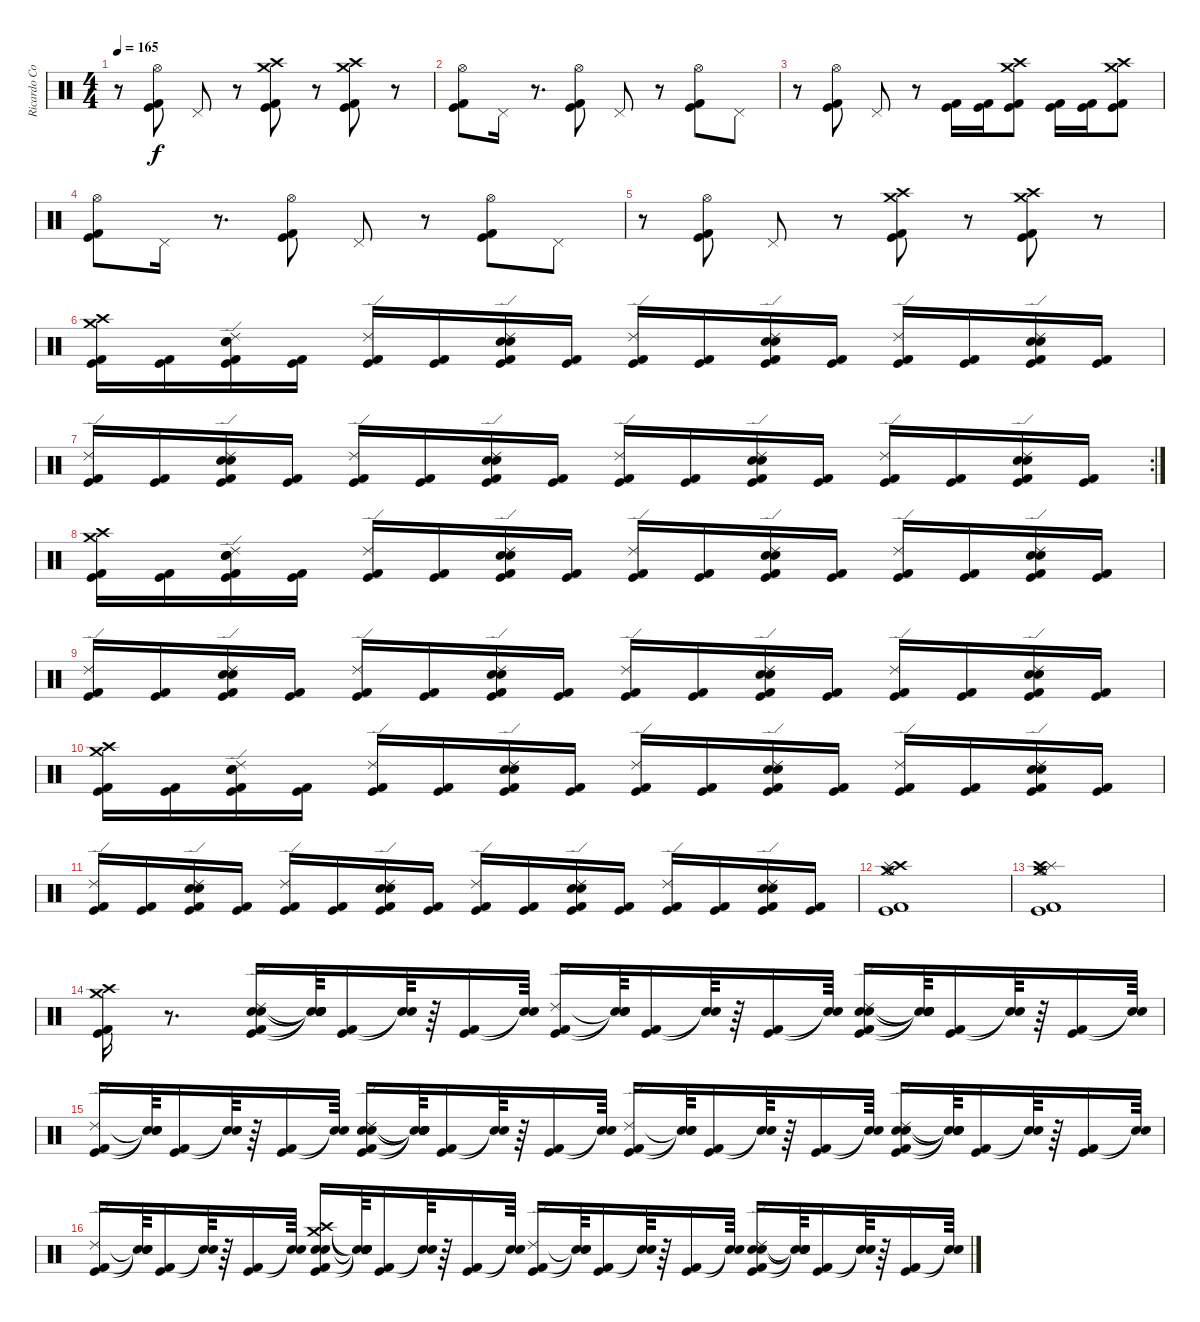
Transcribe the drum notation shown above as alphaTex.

\track ("Ricardo Confessori" "Ricardo Co") {instrument percussion}
\staff {score}
\articulation defaults
\ts (4 4)
\tempo 165
\clef neutral
\ks c
r.8{dy f} ("Hi-Hat (open)" "Kick (hit)" "Kick (hit) 2").8 "Pedal Hi-Hat (hit)".8 r.8 ("Crash high (hit)" "Crash medium (hit)" "Kick (hit)" "Kick (hit) 2").8 r.8 ("Crash high (hit)" "Crash medium (hit)" "Kick (hit) 2" "Kick (hit)").8 r.8 |
("Kick (hit) 2" "Kick (hit)" "Hi-Hat (open)").8 "Pedal Hi-Hat (hit)".16 r.8{d} ("Kick (hit) 2" "Kick (hit)" "Hi-Hat (open)").8 "Pedal Hi-Hat (hit)".8 r.8 ("Kick (hit)" "Hi-Hat (open)" "Kick (hit) 2").8 "Pedal Hi-Hat (hit)".8 |
r.8 ("Hi-Hat (open)" "Kick (hit)" "Kick (hit) 2").8 "Pedal Hi-Hat (hit)".8 r.8 ("Kick (hit) 2" "Kick (hit)").16 ("Kick (hit) 2" "Kick (hit)").16 ("Crash medium (hit)" "Crash high (hit)" "Kick (hit) 2" "Kick (hit)").8 ("Kick (hit) 2" "Kick (hit)").16 ("Kick (hit) 2" "Kick (hit)").16 ("Crash medium (hit)" "Crash high (hit)" "Kick (hit)" "Kick (hit) 2").8 |
("Kick (hit) 2" "Kick (hit)" "Hi-Hat (open)").8 "Pedal Hi-Hat (hit)".16 r.8{d} ("Kick (hit) 2" "Kick (hit)" "Hi-Hat (open)").8 "Pedal Hi-Hat (hit)".8 r.8 ("Kick (hit)" "Hi-Hat (open)" "Kick (hit) 2").8 "Pedal Hi-Hat (hit)".8 |
r.8 ("Hi-Hat (open)" "Kick (hit)" "Kick (hit) 2").8 "Pedal Hi-Hat (hit)".8 r.8 ("Crash high (hit)" "Crash medium (hit)" "Kick (hit)" "Kick (hit) 2").8 r.8 ("Crash high (hit)" "Crash medium (hit)" "Kick (hit) 2" "Kick (hit)").8 r.8 |
("Crash high (hit)" "Crash medium (hit)" "Kick (hit) 2" "Kick (hit)").16 ("Kick (hit) 2" "Kick (hit)").16 ("Ride (edge) 2" "Electric Snare (hit)" "Snare (hit) 2" "Kick (hit) 2" "Kick (hit)").16 ("Kick (hit) 2" "Kick (hit)").16 ("Ride (edge) 2" "Kick (hit) 2" "Kick (hit)").16 ("Kick (hit) 2" "Kick (hit)").16 ("Ride (edge) 2" "Electric Snare (hit)" "Snare (hit) 2" "Kick (hit) 2" "Kick (hit)").16 ("Kick (hit) 2" "Kick (hit)").16 ("Ride (edge) 2" "Kick (hit) 2" "Kick (hit)").16 ("Kick (hit) 2" "Kick (hit)").16 ("Ride (edge) 2" "Electric Snare (hit)" "Snare (hit) 2" "Kick (hit) 2" "Kick (hit)").16 ("Kick (hit) 2" "Kick (hit)").16 ("Ride (edge) 2" "Kick (hit) 2" "Kick (hit)").16 ("Kick (hit) 2" "Kick (hit)").16 ("Ride (edge) 2" "Electric Snare (hit)" "Snare (hit) 2" "Kick (hit) 2" "Kick (hit)").16 ("Kick (hit) 2" "Kick (hit)").16 |
\rc 2
("Ride (edge) 2" "Kick (hit) 2" "Kick (hit)").16 ("Kick (hit) 2" "Kick (hit)").16 ("Ride (edge) 2" "Electric Snare (hit)" "Snare (hit) 2" "Kick (hit) 2" "Kick (hit)").16 ("Kick (hit) 2" "Kick (hit)").16 ("Ride (edge) 2" "Kick (hit) 2" "Kick (hit)").16 ("Kick (hit) 2" "Kick (hit)").16 ("Ride (edge) 2" "Electric Snare (hit)" "Snare (hit) 2" "Kick (hit) 2" "Kick (hit)").16 ("Kick (hit) 2" "Kick (hit)").16 ("Ride (edge) 2" "Kick (hit) 2" "Kick (hit)").16 ("Kick (hit) 2" "Kick (hit)").16 ("Ride (edge) 2" "Electric Snare (hit)" "Snare (hit) 2" "Kick (hit) 2" "Kick (hit)").16 ("Kick (hit) 2" "Kick (hit)").16 ("Ride (edge) 2" "Kick (hit) 2" "Kick (hit)").16 ("Kick (hit) 2" "Kick (hit)").16 ("Ride (edge) 2" "Electric Snare (hit)" "Snare (hit) 2" "Kick (hit) 2" "Kick (hit)").16 ("Kick (hit) 2" "Kick (hit)").16 |
("Crash high (hit)" "Crash medium (hit)" "Kick (hit) 2" "Kick (hit)").16 ("Kick (hit) 2" "Kick (hit)").16 ("Ride (edge) 2" "Electric Snare (hit)" "Snare (hit) 2" "Kick (hit) 2" "Kick (hit)").16 ("Kick (hit) 2" "Kick (hit)").16 ("Ride (edge) 2" "Kick (hit) 2" "Kick (hit)").16 ("Kick (hit) 2" "Kick (hit)").16 ("Ride (edge) 2" "Electric Snare (hit)" "Snare (hit) 2" "Kick (hit) 2" "Kick (hit)").16 ("Kick (hit) 2" "Kick (hit)").16 ("Ride (edge) 2" "Kick (hit) 2" "Kick (hit)").16 ("Kick (hit) 2" "Kick (hit)").16 ("Ride (edge) 2" "Electric Snare (hit)" "Snare (hit) 2" "Kick (hit) 2" "Kick (hit)").16 ("Kick (hit) 2" "Kick (hit)").16 ("Ride (edge) 2" "Kick (hit) 2" "Kick (hit)").16 ("Kick (hit) 2" "Kick (hit)").16 ("Ride (edge) 2" "Electric Snare (hit)" "Snare (hit) 2" "Kick (hit) 2" "Kick (hit)").16 ("Kick (hit) 2" "Kick (hit)").16 |
("Ride (edge) 2" "Kick (hit) 2" "Kick (hit)").16 ("Kick (hit) 2" "Kick (hit)").16 ("Ride (edge) 2" "Electric Snare (hit)" "Snare (hit) 2" "Kick (hit) 2" "Kick (hit)").16 ("Kick (hit) 2" "Kick (hit)").16 ("Ride (edge) 2" "Kick (hit) 2" "Kick (hit)").16 ("Kick (hit) 2" "Kick (hit)").16 ("Ride (edge) 2" "Electric Snare (hit)" "Snare (hit) 2" "Kick (hit) 2" "Kick (hit)").16 ("Kick (hit) 2" "Kick (hit)").16 ("Ride (edge) 2" "Kick (hit) 2" "Kick (hit)").16 ("Kick (hit) 2" "Kick (hit)").16 ("Ride (edge) 2" "Electric Snare (hit)" "Snare (hit) 2" "Kick (hit) 2" "Kick (hit)").16 ("Kick (hit) 2" "Kick (hit)").16 ("Ride (edge) 2" "Kick (hit) 2" "Kick (hit)").16 ("Kick (hit) 2" "Kick (hit)").16 ("Ride (edge) 2" "Electric Snare (hit)" "Snare (hit) 2" "Kick (hit) 2" "Kick (hit)").16 ("Kick (hit) 2" "Kick (hit)").16 |
("Crash high (hit)" "Crash medium (hit)" "Kick (hit) 2" "Kick (hit)").16 ("Kick (hit) 2" "Kick (hit)").16 ("Ride (edge) 2" "Electric Snare (hit)" "Snare (hit) 2" "Kick (hit) 2" "Kick (hit)").16 ("Kick (hit) 2" "Kick (hit)").16 ("Ride (edge) 2" "Kick (hit) 2" "Kick (hit)").16 ("Kick (hit) 2" "Kick (hit)").16 ("Ride (edge) 2" "Electric Snare (hit)" "Snare (hit) 2" "Kick (hit) 2" "Kick (hit)").16 ("Kick (hit) 2" "Kick (hit)").16 ("Ride (edge) 2" "Kick (hit) 2" "Kick (hit)").16 ("Kick (hit) 2" "Kick (hit)").16 ("Ride (edge) 2" "Electric Snare (hit)" "Snare (hit) 2" "Kick (hit) 2" "Kick (hit)").16 ("Kick (hit) 2" "Kick (hit)").16 ("Ride (edge) 2" "Kick (hit) 2" "Kick (hit)").16 ("Kick (hit) 2" "Kick (hit)").16 ("Ride (edge) 2" "Electric Snare (hit)" "Snare (hit) 2" "Kick (hit) 2" "Kick (hit)").16 ("Kick (hit) 2" "Kick (hit)").16 |
("Ride (edge) 2" "Kick (hit) 2" "Kick (hit)").16 ("Kick (hit) 2" "Kick (hit)").16 ("Ride (edge) 2" "Electric Snare (hit)" "Snare (hit) 2" "Kick (hit) 2" "Kick (hit)").16 ("Kick (hit) 2" "Kick (hit)").16 ("Ride (edge) 2" "Kick (hit) 2" "Kick (hit)").16 ("Kick (hit) 2" "Kick (hit)").16 ("Ride (edge) 2" "Electric Snare (hit)" "Snare (hit) 2" "Kick (hit) 2" "Kick (hit)").16 ("Kick (hit) 2" "Kick (hit)").16 ("Ride (edge) 2" "Kick (hit) 2" "Kick (hit)").16 ("Kick (hit) 2" "Kick (hit)").16 ("Ride (edge) 2" "Electric Snare (hit)" "Snare (hit) 2" "Kick (hit) 2" "Kick (hit)").16 ("Kick (hit) 2" "Kick (hit)").16 ("Ride (edge) 2" "Kick (hit) 2" "Kick (hit)").16 ("Kick (hit) 2" "Kick (hit)").16 ("Ride (edge) 2" "Electric Snare (hit)" "Snare (hit) 2" "Kick (hit) 2" "Kick (hit)").16 ("Kick (hit) 2" "Kick (hit)").16 |
("Hi-Hat (open)" "Crash high (hit)" "Splash (hit)" "Crash medium (hit)" "Kick (hit) 2" "Kick (hit)").1 |
("Kick (hit)" "Kick (hit) 2" "Crash medium (hit)" "Splash (hit)" "Hi-Hat (open)" "Crash high (hit)").1 |
("Crash high (hit)" "Crash medium (hit)" "Kick (hit) 2" "Kick (hit)").16 r.8{d} ("Ride (edge) 2" "Electric Snare (hit)" "Snare (hit) 2" "Kick (hit) 2" "Kick (hit)").16 ("Snare (hit)"{t} "Snare (hit)"{t} "Snare (hit)"{t} "Snare (hit)"{t} "Snare (hit)"{t}).64 ("Kick (hit) 2" "Kick (hit)").16 ("Snare (hit)"{t} "Snare (hit)"{t}).64 r.64 ("Kick (hit) 2" "Kick (hit)").16 ("Snare (hit)"{t} "Snare (hit)"{t}).64 ("Ride (edge) 2" "Kick (hit) 2" "Kick (hit)").16 ("Snare (hit)"{t} "Snare (hit)"{t} "Snare (hit)"{t}).64 ("Kick (hit) 2" "Kick (hit)").16 ("Snare (hit)"{t} "Snare (hit)"{t}).64 r.64 ("Kick (hit) 2" "Kick (hit)").16 ("Snare (hit)"{t} "Snare (hit)"{t}).64 ("Ride (edge) 2" "Electric Snare (hit)" "Snare (hit) 2" "Kick (hit) 2" "Kick (hit)").16 ("Snare (hit)"{t} "Snare (hit)"{t} "Snare (hit)"{t} "Snare (hit)"{t} "Snare (hit)"{t}).64 ("Kick (hit) 2" "Kick (hit)").16 ("Snare (hit)"{t} "Snare (hit)"{t}).64 r.64 ("Kick (hit) 2" "Kick (hit)").16 ("Snare (hit)"{t} "Snare (hit)"{t}).64 |
("Ride (edge) 2" "Kick (hit) 2" "Kick (hit)").16 ("Snare (hit)"{t} "Snare (hit)"{t} "Snare (hit)"{t}).64 ("Kick (hit) 2" "Kick (hit)").16 ("Snare (hit)"{t} "Snare (hit)"{t}).64 r.64 ("Kick (hit) 2" "Kick (hit)").16 ("Snare (hit)"{t} "Snare (hit)"{t}).64 ("Ride (edge) 2" "Electric Snare (hit)" "Snare (hit) 2" "Kick (hit) 2" "Kick (hit)").16 ("Snare (hit)"{t} "Snare (hit)"{t} "Snare (hit)"{t} "Snare (hit)"{t} "Snare (hit)"{t}).64 ("Kick (hit) 2" "Kick (hit)").16 ("Snare (hit)"{t} "Snare (hit)"{t}).64 r.64 ("Kick (hit) 2" "Kick (hit)").16 ("Snare (hit)"{t} "Snare (hit)"{t}).64 ("Ride (edge) 2" "Kick (hit) 2" "Kick (hit)").16 ("Snare (hit)"{t} "Snare (hit)"{t} "Snare (hit)"{t}).64 ("Kick (hit) 2" "Kick (hit)").16 ("Snare (hit)"{t} "Snare (hit)"{t}).64 r.64 ("Kick (hit) 2" "Kick (hit)").16 ("Snare (hit)"{t} "Snare (hit)"{t}).64 ("Ride (edge) 2" "Electric Snare (hit)" "Snare (hit) 2" "Kick (hit) 2" "Kick (hit)").16 ("Snare (hit)"{t} "Snare (hit)"{t} "Snare (hit)"{t} "Snare (hit)"{t} "Snare (hit)"{t}).64 ("Kick (hit) 2" "Kick (hit)").16 ("Snare (hit)"{t} "Snare (hit)"{t}).64 r.64 ("Kick (hit) 2" "Kick (hit)").16 ("Snare (hit)"{t} "Snare (hit)"{t}).64 |
("Ride (edge) 2" "Kick (hit) 2" "Kick (hit)").16 ("Snare (hit)"{t} "Snare (hit)"{t} "Snare (hit)"{t}).64 ("Kick (hit) 2" "Kick (hit)").16 ("Snare (hit)"{t} "Snare (hit)"{t}).64 r.64 ("Kick (hit) 2" "Kick (hit)").16 ("Snare (hit)"{t} "Snare (hit)"{t}).64 ("Crash high (hit)" "Crash medium (hit)" "Electric Snare (hit)" "Snare (hit) 2" "Kick (hit) 2" "Kick (hit)").16 ("Snare (hit)"{t} "Snare (hit)"{t} "Snare (hit)"{t} "Snare (hit)"{t} "Snare (hit)"{t} "Snare (hit)"{t}).64 ("Kick (hit) 2" "Kick (hit)").16 ("Snare (hit)"{t} "Snare (hit)"{t}).64 r.64 ("Kick (hit) 2" "Kick (hit)").16 ("Snare (hit)"{t} "Snare (hit)"{t}).64 ("Ride (edge) 2" "Kick (hit) 2" "Kick (hit)").16 ("Snare (hit)"{t} "Snare (hit)"{t} "Snare (hit)"{t}).64 ("Kick (hit) 2" "Kick (hit)").16 ("Snare (hit)"{t} "Snare (hit)"{t}).64 r.64 ("Kick (hit) 2" "Kick (hit)").16 ("Snare (hit)"{t} "Snare (hit)"{t}).64 ("Ride (edge) 2" "Electric Snare (hit)" "Snare (hit) 2" "Kick (hit) 2" "Kick (hit)").16 ("Snare (hit)"{t} "Snare (hit)"{t} "Snare (hit)"{t} "Snare (hit)"{t} "Snare (hit)"{t}).64 ("Kick (hit) 2" "Kick (hit)").16 ("Snare (hit)"{t} "Snare (hit)"{t}).64 r.64 ("Kick (hit) 2" "Kick (hit)").16 ("Snare (hit)"{t} "Snare (hit)"{t}).64
